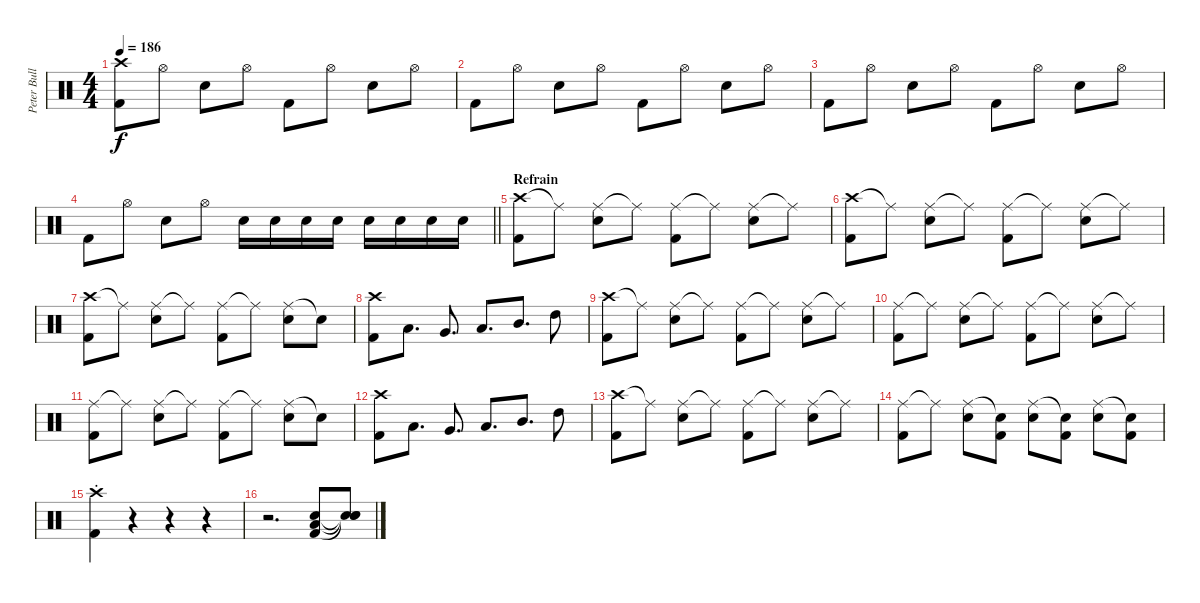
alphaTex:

\track ("Peter Bullrich" "Peter Bull") {instrument percussion}
\staff {score}
\articulation defaults
\ts (4 4)
\tempo 186
\clef neutral
\ks c
("Crash high (hit)" "Kick (hit) 2").8{dy f} "Hi-Hat (open)".8 "Electric Snare (hit)".8 "Hi-Hat (open)".8 "Kick (hit) 2".8 "Hi-Hat (open)".8 "Electric Snare (hit)".8 "Hi-Hat (open)".8 |
"Kick (hit) 2".8 "Hi-Hat (open)".8 "Electric Snare (hit)".8 "Hi-Hat (open)".8 "Kick (hit) 2".8 "Hi-Hat (open)".8 "Electric Snare (hit)".8 "Hi-Hat (open)".8 |
"Kick (hit) 2".8 "Hi-Hat (open)".8 "Electric Snare (hit)".8 "Hi-Hat (open)".8 "Kick (hit) 2".8 "Hi-Hat (open)".8 "Electric Snare (hit)".8 "Hi-Hat (open)".8 |
\barLineRight lightlight "Kick (hit) 2".8 "Hi-Hat (open)".8 "Electric Snare (hit)".8 "Hi-Hat (open)".8 "Electric Snare (hit)".16 "Electric Snare (hit)".16 "Electric Snare (hit)".16 "Electric Snare (hit)".16 "Electric Snare (hit)".16 "Electric Snare (hit)".16 "Electric Snare (hit)".16 "Electric Snare (hit)".16
|
\section ("" "Refrain")
("Crash high (hit)" "Kick (hit) 2").8 "Ride (middle)"{t}.8 ("Ride (middle)" "Electric Snare (hit)").8 "Ride (middle)"{t}.8 ("Ride (middle)" "Kick (hit) 2").8 "Ride (middle)"{t}.8 ("Ride (middle)" "Electric Snare (hit)").8 "Ride (middle)"{t}.8 |
("Crash high (hit)" "Kick (hit) 2").8 "Ride (middle)"{t}.8 ("Ride (middle)" "Electric Snare (hit)").8 "Ride (middle)"{t}.8 ("Ride (middle)" "Kick (hit) 2").8 "Ride (middle)"{t}.8 ("Ride (middle)" "Electric Snare (hit)").8 "Ride (middle)"{t}.8 |
("Crash high (hit)" "Kick (hit) 2").8 "Ride (middle)"{t}.8 ("Ride (middle)" "Electric Snare (hit)").8 "Ride (middle)"{t}.8 ("Ride (middle)" "Kick (hit) 2").8 "Ride (middle)"{t}.8 ("Ride (middle)" "Electric Snare (hit)").8 "Snare (hit)"{t}.8 |
("Crash high (hit)" "Kick (hit) 2").8 "Low Floor Tom (hit)".8{d} "Very Low Tom (hit)".8{d} "Low Tom (hit)".8{d} "Mid Tom (hit)".8{d} "High Tom (hit)".8 |
("Crash high (hit)" "Kick (hit) 2").8 "Ride (middle)"{t}.8 ("Ride (middle)" "Electric Snare (hit)").8 "Ride (middle)"{t}.8 ("Ride (middle)" "Kick (hit) 2").8 "Ride (middle)"{t}.8 ("Ride (middle)" "Electric Snare (hit)").8 "Ride (middle)"{t}.8 |
("Ride (middle)" "Kick (hit) 2").8 "Ride (middle)"{t}.8 ("Ride (middle)" "Electric Snare (hit)").8 "Ride (middle)"{t}.8 ("Ride (middle)" "Kick (hit) 2").8 "Ride (middle)"{t}.8 ("Ride (middle)" "Electric Snare (hit)").8 "Ride (middle)"{t}.8 |
("Ride (middle)" "Kick (hit) 2").8 "Ride (middle)"{t}.8 ("Ride (middle)" "Electric Snare (hit)").8 "Ride (middle)"{t}.8 ("Ride (middle)" "Kick (hit) 2").8 "Ride (middle)"{t}.8 ("Ride (middle)" "Electric Snare (hit)").8 "Snare (hit)"{t}.8 |
("Crash high (hit)" "Kick (hit) 2").8 "Low Floor Tom (hit)".8{d} "Very Low Tom (hit)".8{d} "Low Tom (hit)".8{d} "Mid Tom (hit)".8{d} "High Tom (hit)".8 |
("Crash high (hit)" "Kick (hit) 2").8 "Ride (middle)"{t}.8 ("Ride (middle)" "Electric Snare (hit)").8 "Ride (middle)"{t}.8 ("Ride (middle)" "Kick (hit) 2").8 "Ride (middle)"{t}.8 ("Ride (middle)" "Electric Snare (hit)").8 "Ride (middle)"{t}.8 |
("Ride (middle)" "Kick (hit) 2").8 "Ride (middle)"{t}.8 ("Ride (middle)" "Electric Snare (hit)").8 ("Snare (hit)"{t} "Kick (hit) 2").8 ("Ride (middle)" "Electric Snare (hit)").8 ("Snare (hit)"{t} "Kick (hit) 2").8 ("Ride (middle)" "Electric Snare (hit)").8 ("Snare (hit)"{t} "Kick (hit) 2").8 |
("Crash high (hit)"{st} "Kick (hit) 2"{st}).4 r.4 r.4 r.4 |
r.2{d} ("Low Floor Tom (hit)" "Kick (hit) 2" "Electric Snare (hit)").8 ("Snare (hit)"{t} "Snare (hit)"{t} "Snare (hit)"{t}).8
